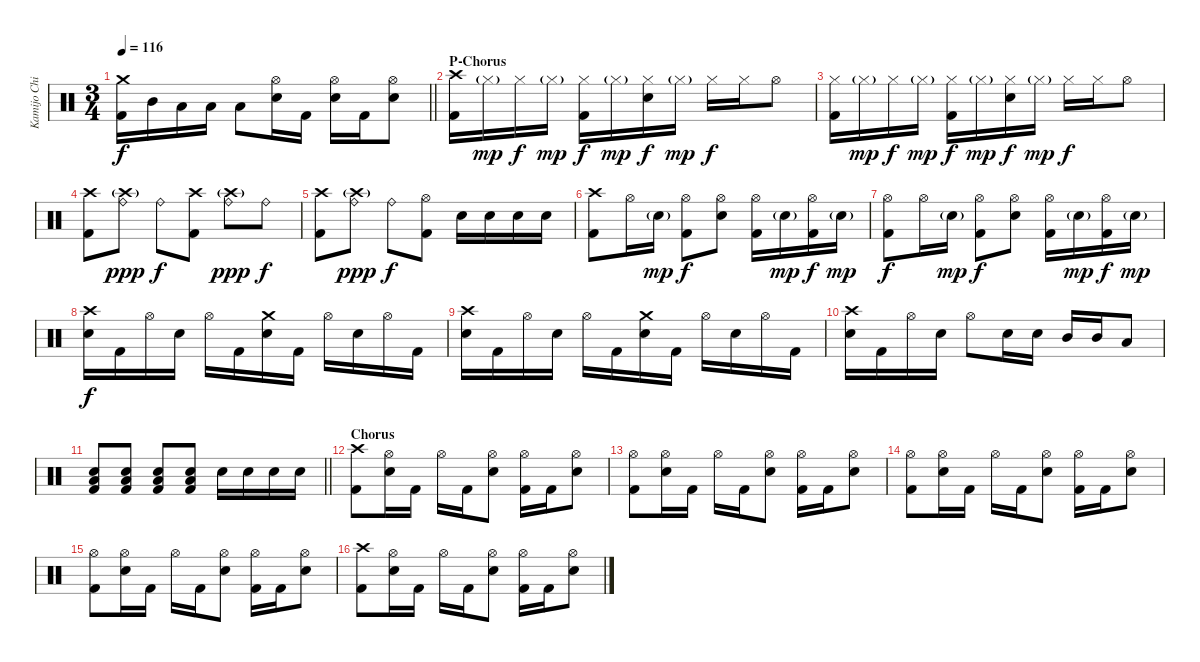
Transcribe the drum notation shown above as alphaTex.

\track ("Kamijo Chihiro" "Kamijo Chi") {instrument percussion}
\staff {score}
\articulation defaults
\ts (3 4)
\tempo 116
\clef neutral
\barLineRight lightlight
\ks c
("Crash medium (hit)" "Kick (hit) 2").16{dy f} "Mid Tom (hit)".16 "Low Tom (hit)".16 "Low Tom (hit)".16 "Low Floor Tom (hit)".8 ("Hi-Hat (open)" "Snare (hit) 2").16 "Kick (hit) 2".16 ("Hi-Hat (open)" "Snare (hit) 2").16 "Kick (hit) 2".16 ("Hi-Hat (open)" "Snare (hit) 2").8 |
\section ("" "P-Chorus")
("Crash high (hit)" "Kick (hit) 2").16 "Hi-Hat (closed)"{g}.16{dy mp} "Hi-Hat (closed)".16{dy f} "Hi-Hat (closed)"{g}.16{dy mp} ("Hi-Hat (closed)" "Kick (hit) 2").16{dy f} "Hi-Hat (closed)"{g}.16{dy mp} ("Hi-Hat (closed)" "Snare (hit) 2").16{dy f} "Hi-Hat (closed)"{g}.16{dy mp} "Hi-Hat (closed)".16{dy f} "Hi-Hat (closed)".16 "Hi-Hat (open)".8 |
("Hi-Hat (closed)" "Kick (hit) 2").16 "Hi-Hat (closed)"{g}.16{dy mp} "Hi-Hat (closed)".16{dy f} "Hi-Hat (closed)"{g}.16{dy mp} ("Hi-Hat (closed)" "Kick (hit) 2").16{dy f} "Hi-Hat (closed)"{g}.16{dy mp} ("Hi-Hat (closed)" "Snare (hit) 2").16{dy f} "Hi-Hat (closed)"{g}.16{dy mp} "Hi-Hat (closed)".16{dy f} "Hi-Hat (closed)".16 "Hi-Hat (open)".8 |
("Crash high (hit)" "Kick (hit) 2").8 ("Ride (bell)" "Crash high (hit)"{g}).8{dy ppp} "Ride (bell)".8{dy f} ("Crash high (hit)" "Kick (hit) 2").8 ("Ride (bell)" "Crash high (hit)"{g}).8{dy ppp} "Ride (bell)".8{dy f} |
("Crash high (hit)" "Kick (hit) 2").8 ("Ride (bell)" "Crash high (hit)"{g}).8{dy ppp} "Ride (bell)".8{dy f} ("Hi-Hat (open)" "Kick (hit) 2").8 "Snare (hit) 2".16 "Snare (hit) 2".16 "Snare (hit) 2".16 "Snare (hit) 2".16 |
("Crash high (hit)" "Kick (hit) 2").8 "Hi-Hat (open)".16 "Snare (hit) 2"{g}.16{dy mp} ("Hi-Hat (open)" "Kick (hit) 2").8{dy f} ("Hi-Hat (open)" "Snare (hit) 2").8 ("Hi-Hat (open)" "Kick (hit) 2").16 "Snare (hit) 2"{g}.16{dy mp} ("Hi-Hat (open)" "Kick (hit) 2").16{dy f} "Snare (hit) 2"{g}.16{dy mp} |
("Hi-Hat (open)" "Kick (hit) 2").8{dy f} "Hi-Hat (open)".16 "Snare (hit) 2"{g}.16{dy mp} ("Hi-Hat (open)" "Kick (hit) 2").8{dy f} ("Hi-Hat (open)" "Snare (hit) 2").8 ("Hi-Hat (open)" "Kick (hit) 2").16 "Snare (hit) 2"{g}.16{dy mp} ("Hi-Hat (open)" "Kick (hit) 2").16{dy f} "Snare (hit) 2"{g}.16{dy mp} |
("Crash high (hit)" "Snare (hit) 2").16{dy f} "Kick (hit) 2".16 "Hi-Hat (open)".16 "Snare (hit) 2".16 "Hi-Hat (open)".16 "Kick (hit) 2".16 ("Crash medium (hit)" "Snare (hit) 2").16 "Kick (hit) 2".16 "Hi-Hat (open)".16 "Snare (hit) 2".16 "Hi-Hat (open)".16 "Kick (hit) 2".16 |
("Crash high (hit)" "Snare (hit) 2").16 "Kick (hit) 2".16 "Hi-Hat (open)".16 "Snare (hit) 2".16 "Hi-Hat (open)".16 "Kick (hit) 2".16 ("Crash medium (hit)" "Snare (hit) 2").16 "Kick (hit) 2".16 "Hi-Hat (open)".16 "Snare (hit) 2".16 "Hi-Hat (open)".16 "Kick (hit) 2".16 |
("Crash high (hit)" "Snare (hit) 2").16 "Kick (hit) 2".16 "Hi-Hat (open)".16 "Snare (hit) 2".16 "Hi-Hat (open)".8 "Snare (hit) 2".16 "Snare (hit) 2".16 "Mid Tom (hit)".16 "Mid Tom (hit)".16 "Low Tom (hit)".8 |
\barLineRight lightlight
("Snare (hit) 2" "Low Floor Tom (hit)" "Kick (hit) 2").8 ("Snare (hit) 2" "Low Floor Tom (hit)" "Kick (hit) 2").8 ("Snare (hit) 2" "Low Floor Tom (hit)" "Kick (hit) 2").8 ("Snare (hit) 2" "Low Floor Tom (hit)" "Kick (hit) 2").8 "Snare (hit) 2".16 "Snare (hit) 2".16 "Snare (hit) 2".16 "Snare (hit) 2".16 |
\section ("" "Chorus")
("Crash high (hit)" "Kick (hit) 2").8 ("Hi-Hat (open)" "Snare (hit) 2").16 "Kick (hit) 2".16 "Hi-Hat (open)".16 "Kick (hit) 2".16 ("Hi-Hat (open)" "Snare (hit) 2").8 ("Hi-Hat (open)" "Kick (hit) 2").16 "Kick (hit) 2".16 ("Hi-Hat (open)" "Snare (hit) 2").8 |
("Hi-Hat (open)" "Kick (hit) 2").8 ("Hi-Hat (open)" "Snare (hit) 2").16 "Kick (hit) 2".16 "Hi-Hat (open)".16 "Kick (hit) 2".16 ("Hi-Hat (open)" "Snare (hit) 2").8 ("Hi-Hat (open)" "Kick (hit) 2").16 "Kick (hit) 2".16 ("Hi-Hat (open)" "Snare (hit) 2").8 |
("Hi-Hat (open)" "Kick (hit) 2").8 ("Hi-Hat (open)" "Snare (hit) 2").16 "Kick (hit) 2".16 "Hi-Hat (open)".16 "Kick (hit) 2".16 ("Hi-Hat (open)" "Snare (hit) 2").8 ("Hi-Hat (open)" "Kick (hit) 2").16 "Kick (hit) 2".16 ("Hi-Hat (open)" "Snare (hit) 2").8 |
("Hi-Hat (open)" "Kick (hit) 2").8 ("Hi-Hat (open)" "Snare (hit) 2").16 "Kick (hit) 2".16 "Hi-Hat (open)".16 "Kick (hit) 2".16 ("Hi-Hat (open)" "Snare (hit) 2").8 ("Hi-Hat (open)" "Kick (hit) 2").16 "Kick (hit) 2".16 ("Hi-Hat (open)" "Snare (hit) 2").8 |
("Crash high (hit)" "Kick (hit) 2").8 ("Hi-Hat (open)" "Snare (hit) 2").16 "Kick (hit) 2".16 "Hi-Hat (open)".16 "Kick (hit) 2".16 ("Hi-Hat (open)" "Snare (hit) 2").8 ("Hi-Hat (open)" "Kick (hit) 2").16 "Kick (hit) 2".16 ("Hi-Hat (open)" "Snare (hit) 2").8
